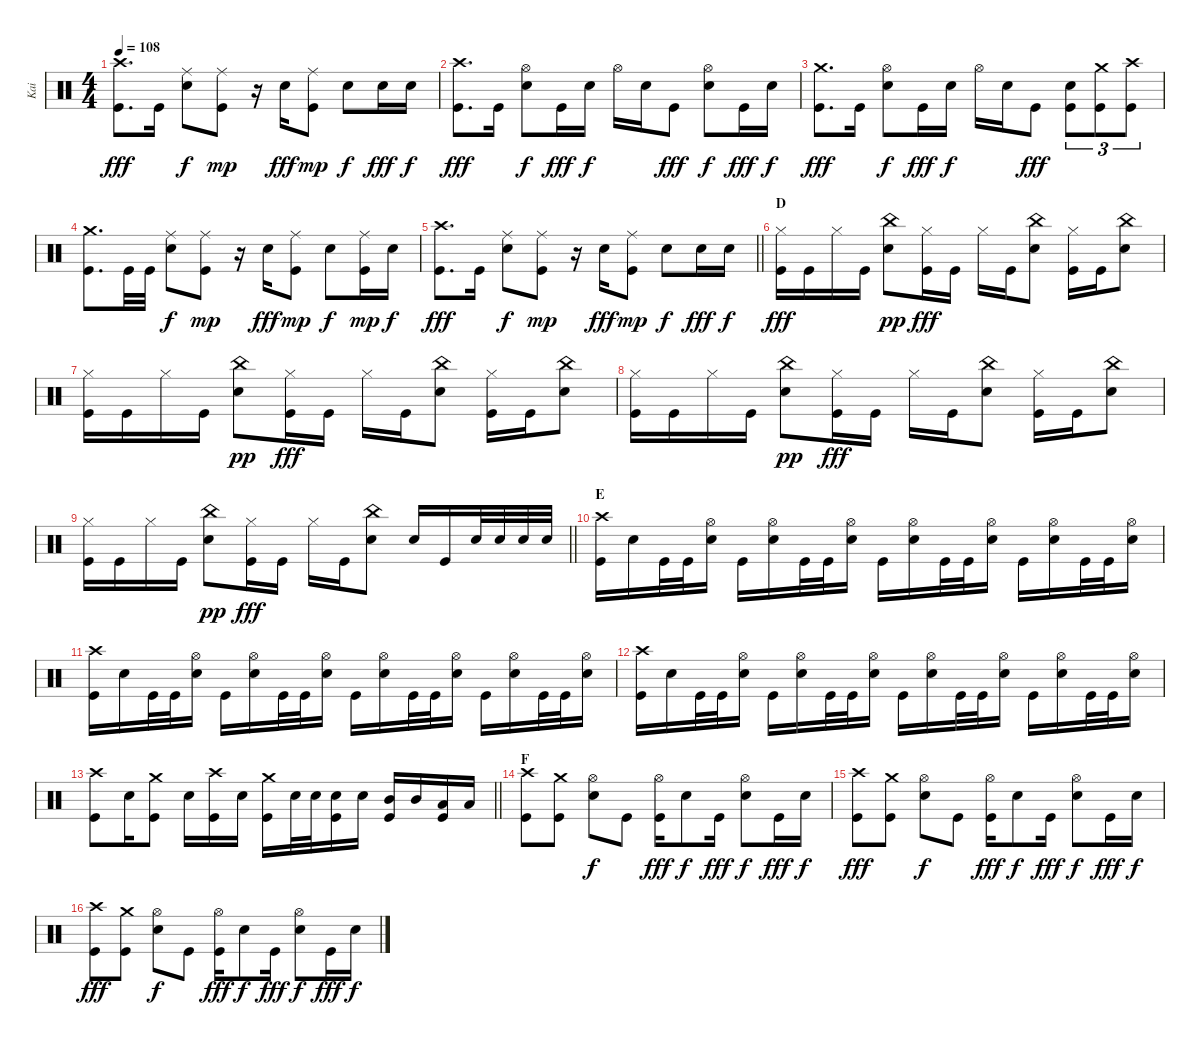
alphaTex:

\track ("Kai" "Kai") {instrument percussion}
\staff {score}
\articulation defaults
\ts (4 4)
\tempo 108
\clef neutral
\ks c
("Crash high (hit)" "Kick (hit)").8{d dy fff} "Kick (hit)".16 ("Snare (hit) 2" "Ride (middle)").8{dy f} ("Kick (hit)" "Ride (middle)").8{dy mp} r.16 "Snare (hit) 2".16{dy fff} ("Kick (hit)" "Ride (middle)").8{dy mp} "Snare (hit) 2".8{dy f} "Snare (hit) 2".16{dy fff} "Snare (hit) 2".16{dy f} |
("Crash high (hit)" "Kick (hit)").8{d dy fff} "Kick (hit)".16 ("Snare (hit) 2" "Hi-Hat (open)").8{dy f} "Kick (hit)".16{dy fff} "Snare (hit) 2".16{dy f} "Hi-Hat (open)".16 "Snare (hit) 2".16 "Kick (hit)".8{dy fff} ("Snare (hit) 2" "Hi-Hat (open)").8{dy f} "Kick (hit)".16{dy fff} "Snare (hit) 2".16{dy f} |
("Crash medium (hit)" "Kick (hit)").8{d dy fff} "Kick (hit)".16 ("Snare (hit) 2" "Hi-Hat (open)").8{dy f} "Kick (hit)".16{dy fff} "Snare (hit) 2".16{dy f} "Hi-Hat (open)".16 "Snare (hit) 2".16 "Kick (hit)".8{dy fff} ("Kick (hit)" "Snare (hit) 2").8{tu (3 2)} ("Kick (hit)" "Crash medium (hit)").8{tu (3 2)} ("Kick (hit)" "Crash high (hit)").8{tu (3 2)} |
("Crash medium (hit)" "Kick (hit)").8{d} "Kick (hit)".32 "Kick (hit)".32 ("Snare (hit) 2" "Ride (middle)").8{dy f} ("Kick (hit)" "Ride (middle)").8{dy mp} r.16 "Snare (hit) 2".16{dy fff} ("Kick (hit)" "Ride (middle)").8{dy mp} "Snare (hit) 2".8{dy f} ("Kick (hit)" "Ride (middle)").16{dy mp} "Snare (hit) 2".16{dy f} |
\barLineRight lightlight
("Crash high (hit)" "Kick (hit)").8{d dy fff} "Kick (hit)".16 ("Snare (hit) 2" "Ride (middle)").8{dy f} ("Kick (hit)" "Ride (middle)").8{dy mp} r.16 "Snare (hit) 2".16{dy fff} ("Kick (hit)" "Ride (middle)").8{dy mp} "Snare (hit) 2".8{dy f} "Snare (hit) 2".16{dy fff} "Snare (hit) 2".16{dy f} |
\section ("" "D")
("Hi-Hat (closed)" "Kick (hit)").16{dy fff} "Kick (hit)".16 "Hi-Hat (closed)".16 "Kick (hit)".16 ("Snare (hit) 2" "China (hit)").8{dy pp} ("Kick (hit)" "Hi-Hat (closed)").16{dy fff} "Kick (hit)".16 "Hi-Hat (closed)".16 "Kick (hit)".16 ("China (hit)" "Snare (hit) 2").8 ("Kick (hit)" "Hi-Hat (closed)").16 "Kick (hit)".16 ("China (hit)" "Snare (hit) 2").8 |
("Hi-Hat (closed)" "Kick (hit)").16 "Kick (hit)".16 "Hi-Hat (closed)".16 "Kick (hit)".16 ("Snare (hit) 2" "China (hit)").8{dy pp} ("Kick (hit)" "Hi-Hat (closed)").16{dy fff} "Kick (hit)".16 "Hi-Hat (closed)".16 "Kick (hit)".16 ("China (hit)" "Snare (hit) 2").8 ("Kick (hit)" "Hi-Hat (closed)").16 "Kick (hit)".16 ("China (hit)" "Snare (hit) 2").8 |
("Hi-Hat (closed)" "Kick (hit)").16 "Kick (hit)".16 "Hi-Hat (closed)".16 "Kick (hit)".16 ("Snare (hit) 2" "China (hit)").8{dy pp} ("Kick (hit)" "Hi-Hat (closed)").16{dy fff} "Kick (hit)".16 "Hi-Hat (closed)".16 "Kick (hit)".16 ("China (hit)" "Snare (hit) 2").8 ("Kick (hit)" "Hi-Hat (closed)").16 "Kick (hit)".16 ("China (hit)" "Snare (hit) 2").8 |
\barLineRight lightlight
("Hi-Hat (closed)" "Kick (hit)").16 "Kick (hit)".16 "Hi-Hat (closed)".16 "Kick (hit)".16 ("Snare (hit) 2" "China (hit)").8{dy pp} ("Kick (hit)" "Hi-Hat (closed)").16{dy fff} "Kick (hit)".16 "Hi-Hat (closed)".16 "Kick (hit)".16 ("China (hit)" "Snare (hit) 2").8 "Snare (hit) 2".16 "Kick (hit)".16 "Snare (hit) 2".32 "Snare (hit) 2".32 "Snare (hit) 2".32 "Snare (hit) 2".32 |
\section ("" "E")
("Kick (hit)" "Crash high (hit)").16 "Snare (hit) 2".16 "Kick (hit)".32 "Kick (hit)".32 ("Snare (hit) 2" "Hi-Hat (open)").16 "Kick (hit)".16 ("Snare (hit) 2" "Hi-Hat (open)").16 "Kick (hit)".32 "Kick (hit)".32 ("Snare (hit) 2" "Hi-Hat (open)").16 "Kick (hit)".16 ("Snare (hit) 2" "Hi-Hat (open)").16 "Kick (hit)".32 "Kick (hit)".32 ("Snare (hit) 2" "Hi-Hat (open)").16 "Kick (hit)".16 ("Snare (hit) 2" "Hi-Hat (open)").16 "Kick (hit)".32 "Kick (hit)".32 ("Snare (hit) 2" "Hi-Hat (open)").16 |
("Kick (hit)" "Crash high (hit)").16 "Snare (hit) 2".16 "Kick (hit)".32 "Kick (hit)".32 ("Snare (hit) 2" "Hi-Hat (open)").16 "Kick (hit)".16 ("Snare (hit) 2" "Hi-Hat (open)").16 "Kick (hit)".32 "Kick (hit)".32 ("Snare (hit) 2" "Hi-Hat (open)").16 "Kick (hit)".16 ("Snare (hit) 2" "Hi-Hat (open)").16 "Kick (hit)".32 "Kick (hit)".32 ("Snare (hit) 2" "Hi-Hat (open)").16 "Kick (hit)".16 ("Snare (hit) 2" "Hi-Hat (open)").16 "Kick (hit)".32 "Kick (hit)".32 ("Snare (hit) 2" "Hi-Hat (open)").16 |
("Kick (hit)" "Crash high (hit)").16 "Snare (hit) 2".16 "Kick (hit)".32 "Kick (hit)".32 ("Snare (hit) 2" "Hi-Hat (open)").16 "Kick (hit)".16 ("Snare (hit) 2" "Hi-Hat (open)").16 "Kick (hit)".32 "Kick (hit)".32 ("Snare (hit) 2" "Hi-Hat (open)").16 "Kick (hit)".16 ("Snare (hit) 2" "Hi-Hat (open)").16 "Kick (hit)".32 "Kick (hit)".32 ("Snare (hit) 2" "Hi-Hat (open)").16 "Kick (hit)".16 ("Snare (hit) 2" "Hi-Hat (open)").16 "Kick (hit)".32 "Kick (hit)".32 ("Snare (hit) 2" "Hi-Hat (open)").16 |
\barLineRight lightlight
("Kick (hit)" "Crash high (hit)").8 "Snare (hit) 2".16 ("Crash medium (hit)" "Kick (hit)").8 "Snare (hit) 2".16 ("Crash high (hit)" "Kick (hit)").16 "Snare (hit) 2".16 ("Crash medium (hit)" "Kick (hit)").16 "Snare (hit) 2".32 "Snare (hit) 2".32 ("Snare (hit) 2" "Kick (hit)").16 "Snare (hit) 2".16 ("Mid Tom (hit)" "Kick (hit)").16 "Mid Tom (hit)".16 ("Low Tom (hit)" "Kick (hit)").16 "Low Tom (hit)".16 |
\section ("" "F")
("Kick (hit)" "Crash high (hit)").8 ("Kick (hit)" "Crash medium (hit)").8 ("Snare (hit) 2" "Hi-Hat (open)").8{dy f} "Kick (hit)".8 ("Kick (hit)" "Hi-Hat (open)").16{dy fff} "Snare (hit) 2".8{dy f} "Kick (hit)".16{dy fff} ("Snare (hit) 2" "Hi-Hat (open)").8{dy f} "Kick (hit)".16{dy fff} "Snare (hit) 2".16{dy f} |
("Kick (hit)" "Crash high (hit)").8{dy fff} ("Kick (hit)" "Crash medium (hit)").8 ("Snare (hit) 2" "Hi-Hat (open)").8{dy f} "Kick (hit)".8 ("Kick (hit)" "Hi-Hat (open)").16{dy fff} "Snare (hit) 2".8{dy f} "Kick (hit)".16{dy fff} ("Snare (hit) 2" "Hi-Hat (open)").8{dy f} "Kick (hit)".16{dy fff} "Snare (hit) 2".16{dy f} |
("Kick (hit)" "Crash high (hit)").8{dy fff} ("Kick (hit)" "Crash medium (hit)").8 ("Snare (hit) 2" "Hi-Hat (open)").8{dy f} "Kick (hit)".8 ("Kick (hit)" "Hi-Hat (open)").16{dy fff} "Snare (hit) 2".8{dy f} "Kick (hit)".16{dy fff} ("Snare (hit) 2" "Hi-Hat (open)").8{dy f} "Kick (hit)".16{dy fff} "Snare (hit) 2".16{dy f}
